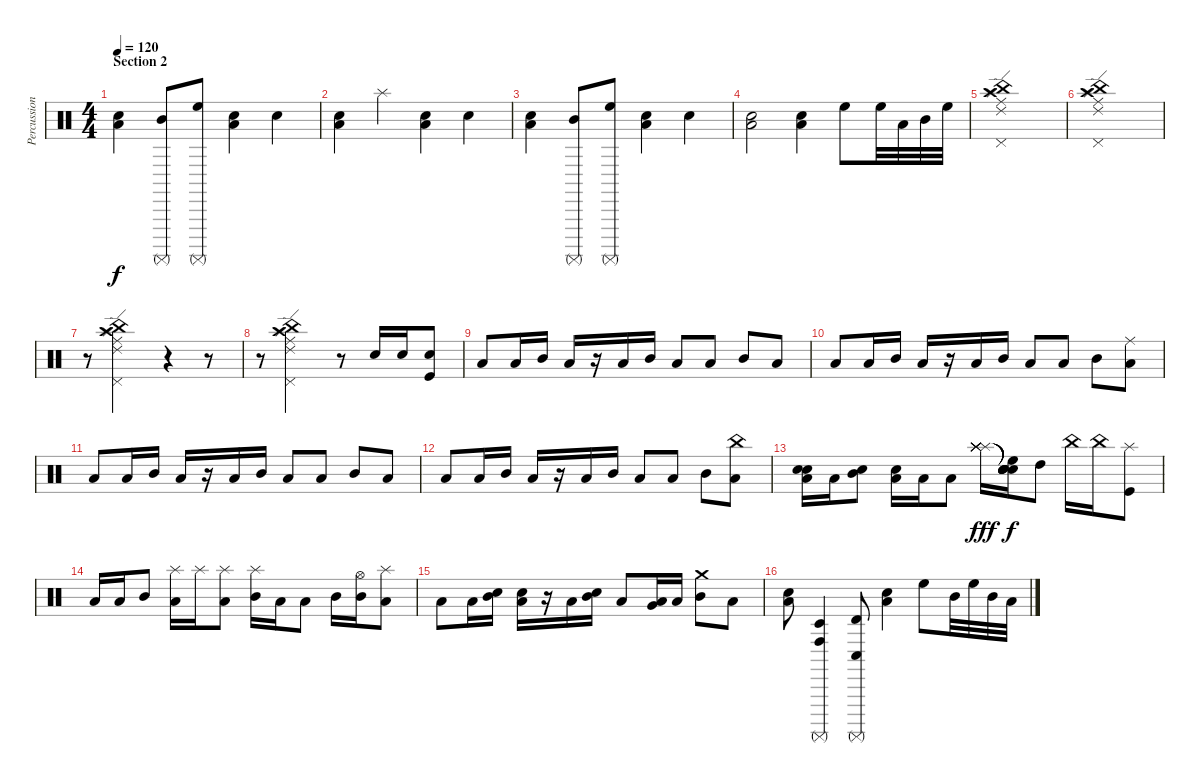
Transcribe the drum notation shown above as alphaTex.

\track ("Percussion" "Percussion") {instrument percussion}
\staff {score}
\articulation defaults
\ts (4 4)
\section ("" "Section 2")
\tempo 120
\clef neutral
\ks c
("Low Floor Tom (hit)" "Hand Clap (hit)").4{dy f} ("Mid Tom (hit)" "Surdo (mute)").8 ("High Floor Tom (hit)" "Surdo (mute)").8 ("Low Floor Tom (hit)" "Hand Clap (hit)").4 "Hand Clap (hit)".4 |
("Low Floor Tom (hit)" "Hand Clap (hit)").4 "Splash (hit)".4 ("Low Floor Tom (hit)" "Hand Clap (hit)").4 "Hand Clap (hit)".4 |
("Low Floor Tom (hit)" "Hand Clap (hit)").4 ("Mid Tom (hit)" "Surdo (mute)").8 ("High Floor Tom (hit)" "Surdo (mute)").8 ("Low Floor Tom (hit)" "Hand Clap (hit)").4 "Hand Clap (hit)".4 |
("Low Floor Tom (hit)" "Hand Clap (hit)").2 ("Low Floor Tom (hit)" "Hand Clap (hit)").4 "High Floor Tom (hit)".8 "High Floor Tom (hit)".32 "Low Tom (hit)".32 "Mid Tom (hit)".32 "High Floor Tom (hit)".32 |
("China (hit)" "Splash (hit)" "Ride (middle)" "Crash high (hit)" "Ride (edge) 2" "Pedal Hi-Hat (hit)").1 |
("China (hit)" "Splash (hit)" "Ride (middle)" "Crash high (hit)" "Ride (edge) 2" "Pedal Hi-Hat (hit)").1 |
r.8 ("China (hit)" "Splash (hit)" "Ride (middle)" "Crash high (hit)" "Ride (edge) 2" "Pedal Hi-Hat (hit)").2 r.4 r.8 |
r.8 ("China (hit)" "Splash (hit)" "Ride (middle)" "Crash high (hit)" "Ride (edge) 2" "Pedal Hi-Hat (hit)").2 r.8 "Snare (hit) 2".16 "Snare (hit) 2".16 ("Kick (hit)" "Electric Snare (hit)").8 |
"Low Floor Tom (hit)".8 "Low Tom (hit)".16 "Mid Tom (hit)".16 "Low Tom (hit)".16 r.16 "Low Tom (hit)".16 "Mid Tom (hit)".16 "Low Floor Tom (hit)".8 "Low Tom (hit)".8 "Mid Tom (hit)".8 "Low Tom (hit)".8 |
"Low Floor Tom (hit)".8 "Low Tom (hit)".16 "Mid Tom (hit)".16 "Low Tom (hit)".16 r.16 "Low Tom (hit)".16 "Mid Tom (hit)".16 "Low Floor Tom (hit)".8 "Low Tom (hit)".8 "Mid Tom (hit)".8 ("Low Tom (hit)" "Ride (middle)").8 |
"Low Floor Tom (hit)".8 "Low Tom (hit)".16 "Mid Tom (hit)".16 "Low Tom (hit)".16 r.16 "Low Tom (hit)".16 "Mid Tom (hit)".16 "Low Floor Tom (hit)".8 "Low Tom (hit)".8 "Mid Tom (hit)".8 "Low Tom (hit)".8 |
"Low Floor Tom (hit)".8 "Low Tom (hit)".16 "Mid Tom (hit)".16 "Low Tom (hit)".16 r.16 "Low Tom (hit)".16 "Mid Tom (hit)".16 "Low Floor Tom (hit)".8 "Low Tom (hit)".8 "Mid Tom (hit)".8 ("Low Tom (hit)" "China (hit)").8 |
("Low Floor Tom (hit)" "Snare (hit)" "Snare (hit)").16 "Low Tom (hit)".16 ("Mid Tom (hit)" "Snare (hit) 2").8 ("Low Tom (hit)" "Snare (hit) 2").16 "Low Tom (hit)".16 "Low Tom (hit)".8 ("Splash (hit)" "Splash (hit)" "Splash (hit)" "Splash (hit)" "Splash (hit)" "Splash (hit)").16{dy fff} ("Snare (hit)"{t} "High Floor Tom (hit)" "Snare (hit)"{t} "Snare (hit)"{t} "Snare (hit)"{t} "Snare (hit)"{t}).16{dy f} "High Tom (hit)".8 "China (hit)".16 "China (hit)".16 ("Splash (hit)" "Kick (hit)").8 |
"Low Floor Tom (hit)".16 "Low Tom (hit)".16 "Mid Tom (hit)".8 ("Low Tom (hit)" "Splash (hit)").16 "Splash (hit)".16 ("Low Tom (hit)" "Splash (hit)").8 ("Mid Tom (hit)" "Splash (hit)").16 "Low Floor Tom (hit)".16 "Low Tom (hit)".8 "Mid Tom (hit)".16 ("Mid Tom (hit)" "Hi-Hat (open)").16 ("Low Tom (hit)" "Splash (hit)").8 |
"Low Floor Tom (hit)".8 "Low Tom (hit)".16 ("Mid Tom (hit)" "Snare (hit) 2").16 ("Low Tom (hit)" "Snare (hit) 2").16 r.16 "Low Tom (hit)".16 ("Mid Tom (hit)" "Snare (hit) 2").16 "Low Floor Tom (hit)".8 ("Low Tom (hit)" "Very Low Tom (hit)").16 "Low Floor Tom (hit)".16 ("Mid Tom (hit)" "Crash medium (hit)").8 "Low Tom (hit)".8 |
("Low Floor Tom (hit)" "Hand Clap (hit)").8 ("Timbale low (hit)" "Surdo (mute)" "Conga high (hit)").4 ("Surdo (mute)" "Conga low (hit)" "Timbale high (hit)").8 ("Low Floor Tom (hit)" "Hand Clap (hit)").4 "High Floor Tom (hit)".8 "Mid Tom (hit)".32 "High Floor Tom (hit)".32 "Mid Tom (hit)".32 "Low Tom (hit)".32
